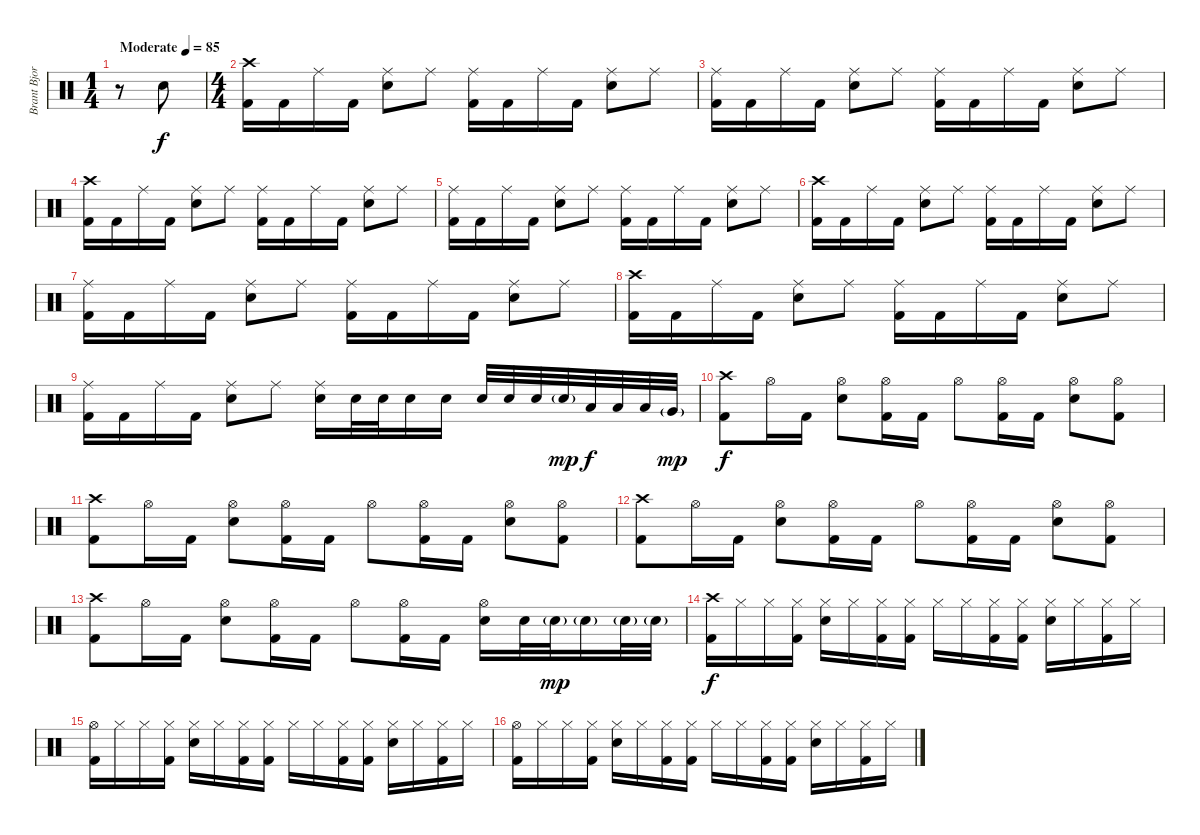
\track ("Brant Bjork" "Brant Bjor") {instrument percussion}
\staff {score}
\articulation defaults
\ts (1 4)
\tempo (85 "Moderate")
\clef neutral
\ks c
r.8{dy f} "Electric Snare (hit)".8 |
\ts (4 4)
("Crash high (hit)" "Kick (hit) 2").16 "Kick (hit) 2".16 "Ride (middle)".16 "Kick (hit) 2".16 ("Ride (middle)" "Electric Snare (hit)").8 "Ride (middle)".8 ("Ride (middle)" "Kick (hit) 2").16 "Kick (hit) 2".16 "Ride (middle)".16 "Kick (hit) 2".16 ("Ride (middle)" "Electric Snare (hit)").8 "Ride (middle)".8 |
("Ride (middle)" "Kick (hit) 2").16 "Kick (hit) 2".16 "Ride (middle)".16 "Kick (hit) 2".16 ("Ride (middle)" "Electric Snare (hit)").8 "Ride (middle)".8 ("Ride (middle)" "Kick (hit) 2").16 "Kick (hit) 2".16 "Ride (middle)".16 "Kick (hit) 2".16 ("Ride (middle)" "Electric Snare (hit)").8 "Ride (middle)".8 |
("Crash high (hit)" "Kick (hit) 2").16 "Kick (hit) 2".16 "Ride (middle)".16 "Kick (hit) 2".16 ("Ride (middle)" "Electric Snare (hit)").8 "Ride (middle)".8 ("Ride (middle)" "Kick (hit) 2").16 "Kick (hit) 2".16 "Ride (middle)".16 "Kick (hit) 2".16 ("Ride (middle)" "Electric Snare (hit)").8 "Ride (middle)".8 |
("Ride (middle)" "Kick (hit) 2").16 "Kick (hit) 2".16 "Ride (middle)".16 "Kick (hit) 2".16 ("Ride (middle)" "Electric Snare (hit)").8 "Ride (middle)".8 ("Ride (middle)" "Kick (hit) 2").16 "Kick (hit) 2".16 "Ride (middle)".16 "Kick (hit) 2".16 ("Ride (middle)" "Electric Snare (hit)").8 "Ride (middle)".8 |
("Crash high (hit)" "Kick (hit) 2").16 "Kick (hit) 2".16 "Ride (middle)".16 "Kick (hit) 2".16 ("Ride (middle)" "Electric Snare (hit)").8 "Ride (middle)".8 ("Ride (middle)" "Kick (hit) 2").16 "Kick (hit) 2".16 "Ride (middle)".16 "Kick (hit) 2".16 ("Ride (middle)" "Electric Snare (hit)").8 "Ride (middle)".8 |
("Ride (middle)" "Kick (hit) 2").16 "Kick (hit) 2".16 "Ride (middle)".16 "Kick (hit) 2".16 ("Ride (middle)" "Electric Snare (hit)").8 "Ride (middle)".8 ("Ride (middle)" "Kick (hit) 2").16 "Kick (hit) 2".16 "Ride (middle)".16 "Kick (hit) 2".16 ("Ride (middle)" "Electric Snare (hit)").8 "Ride (middle)".8 |
("Crash high (hit)" "Kick (hit) 2").16 "Kick (hit) 2".16 "Ride (middle)".16 "Kick (hit) 2".16 ("Ride (middle)" "Electric Snare (hit)").8 "Ride (middle)".8 ("Ride (middle)" "Kick (hit) 2").16 "Kick (hit) 2".16 "Ride (middle)".16 "Kick (hit) 2".16 ("Ride (middle)" "Electric Snare (hit)").8 "Ride (middle)".8 |
("Ride (middle)" "Kick (hit) 2").16 "Kick (hit) 2".16 "Ride (middle)".16 "Kick (hit) 2".16 ("Ride (middle)" "Electric Snare (hit)").8 "Ride (middle)".8 ("Ride (middle)" "Electric Snare (hit)").16 "Electric Snare (hit)".32 "Electric Snare (hit)".32 "Electric Snare (hit)".16 "Electric Snare (hit)".16 "Electric Snare (hit)".32 "Electric Snare (hit)".32 "Electric Snare (hit)".32 "Electric Snare (hit)"{g}.32{dy mp} "Low Tom (hit)".32{dy f} "Low Tom (hit)".32 "Low Tom (hit)".32 "Very Low Tom (hit)"{g}.32{dy mp} |
("Kick (hit) 2" "Crash high (hit)").8{dy f} "Hi-Hat (open)".16 "Kick (hit) 2".16 ("Hi-Hat (open)" "Electric Snare (hit)").8 ("Hi-Hat (open)" "Kick (hit) 2").16 "Kick (hit) 2".16 "Hi-Hat (open)".8 ("Hi-Hat (open)" "Kick (hit) 2").16 "Kick (hit) 2".16 ("Hi-Hat (open)" "Electric Snare (hit)").8 ("Hi-Hat (open)" "Kick (hit) 2").8 |
("Kick (hit) 2" "Crash high (hit)").8 "Hi-Hat (open)".16 "Kick (hit) 2".16 ("Hi-Hat (open)" "Electric Snare (hit)").8 ("Hi-Hat (open)" "Kick (hit) 2").16 "Kick (hit) 2".16 "Hi-Hat (open)".8 ("Hi-Hat (open)" "Kick (hit) 2").16 "Kick (hit) 2".16 ("Hi-Hat (open)" "Electric Snare (hit)").8 ("Hi-Hat (open)" "Kick (hit) 2").8 |
("Kick (hit) 2" "Crash high (hit)").8 "Hi-Hat (open)".16 "Kick (hit) 2".16 ("Hi-Hat (open)" "Electric Snare (hit)").8 ("Hi-Hat (open)" "Kick (hit) 2").16 "Kick (hit) 2".16 "Hi-Hat (open)".8 ("Hi-Hat (open)" "Kick (hit) 2").16 "Kick (hit) 2".16 ("Hi-Hat (open)" "Electric Snare (hit)").8 ("Hi-Hat (open)" "Kick (hit) 2").8 |
("Kick (hit) 2" "Crash high (hit)").8 "Hi-Hat (open)".16 "Kick (hit) 2".16 ("Hi-Hat (open)" "Electric Snare (hit)").8 ("Hi-Hat (open)" "Kick (hit) 2").16 "Kick (hit) 2".16 "Hi-Hat (open)".8 ("Hi-Hat (open)" "Kick (hit) 2").16 "Kick (hit) 2".16 ("Hi-Hat (open)" "Electric Snare (hit)").16 "Electric Snare (hit)".32 "Electric Snare (hit)"{g}.32{dy mp} "Electric Snare (hit)"{g}.16 "Electric Snare (hit)"{g}.32 "Electric Snare (hit)"{g}.32 |
("Kick (hit) 2" "Crash high (hit)").16{dy f volume 10} "Hi-Hat (closed)".16 "Hi-Hat (closed)".16 ("Hi-Hat (closed)" "Kick (hit) 2").16 ("Hi-Hat (closed)" "Electric Snare (hit)").16 "Hi-Hat (closed)".16 ("Hi-Hat (closed)" "Kick (hit) 2").16 ("Hi-Hat (closed)" "Kick (hit) 2").16 "Hi-Hat (closed)".16 "Hi-Hat (closed)".16 ("Hi-Hat (closed)" "Kick (hit) 2").16 ("Hi-Hat (closed)" "Kick (hit) 2").16 ("Hi-Hat (closed)" "Electric Snare (hit)").16 "Hi-Hat (closed)".16 ("Hi-Hat (closed)" "Kick (hit) 2").16 "Hi-Hat (closed)".16 |
("Hi-Hat (open)" "Kick (hit) 2").16 "Hi-Hat (closed)".16 "Hi-Hat (closed)".16 ("Hi-Hat (closed)" "Kick (hit) 2").16 ("Hi-Hat (closed)" "Electric Snare (hit)").16 "Hi-Hat (closed)".16 ("Hi-Hat (closed)" "Kick (hit) 2").16 ("Hi-Hat (closed)" "Kick (hit) 2").16 "Hi-Hat (closed)".16 "Hi-Hat (closed)".16 ("Hi-Hat (closed)" "Kick (hit) 2").16 ("Hi-Hat (closed)" "Kick (hit) 2").16 ("Hi-Hat (closed)" "Electric Snare (hit)").16 "Hi-Hat (closed)".16 ("Hi-Hat (closed)" "Kick (hit) 2").16 "Hi-Hat (closed)".16 |
("Hi-Hat (open)" "Kick (hit) 2").16 "Hi-Hat (closed)".16 "Hi-Hat (closed)".16 ("Hi-Hat (closed)" "Kick (hit) 2").16 ("Hi-Hat (closed)" "Electric Snare (hit)").16 "Hi-Hat (closed)".16 ("Hi-Hat (closed)" "Kick (hit) 2").16 ("Hi-Hat (closed)" "Kick (hit) 2").16 "Hi-Hat (closed)".16 "Hi-Hat (closed)".16 ("Hi-Hat (closed)" "Kick (hit) 2").16 ("Hi-Hat (closed)" "Kick (hit) 2").16 ("Hi-Hat (closed)" "Electric Snare (hit)").16 "Hi-Hat (closed)".16 ("Hi-Hat (closed)" "Kick (hit) 2").16 "Hi-Hat (closed)".16
